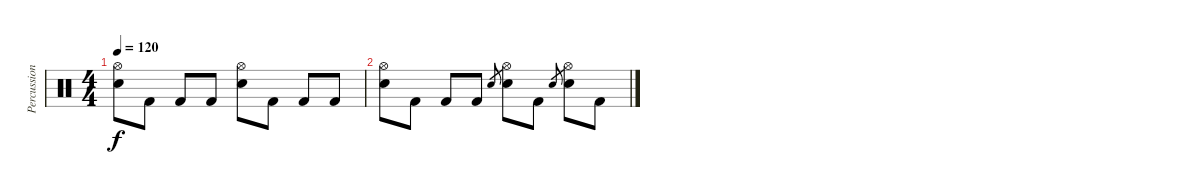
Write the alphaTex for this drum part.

\track ("Percussion" "Percussion") {instrument percussion}
\staff {score}
\articulation defaults
\ts (4 4)
\tempo 120
\clef neutral
\ks c
("Hi-Hat (open)" "Electric Snare (hit)").8{dy f} "Kick (hit) 2".8 "Kick (hit) 2".8 "Kick (hit) 2".8 ("Hi-Hat (open)" "Electric Snare (hit)").8 "Kick (hit) 2".8 "Kick (hit) 2".8 "Kick (hit) 2".8 |
("Hi-Hat (open)" "Electric Snare (hit)").8 "Kick (hit) 2".8 "Kick (hit) 2".8 "Kick (hit) 2".8 "Electric Snare (hit)".8{gr} ("Hi-Hat (open)" "Electric Snare (hit)").8 "Kick (hit) 2".8 "Electric Snare (hit)".8{gr} ("Hi-Hat (open)" "Electric Snare (hit)").8 "Kick (hit) 2".8
